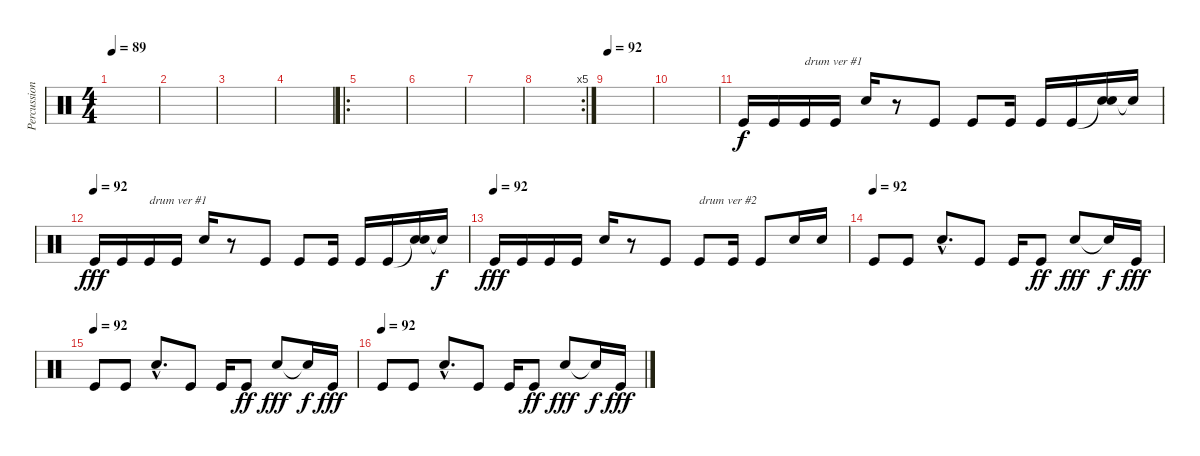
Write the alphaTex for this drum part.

\track ("Percussion" "Percussion") {instrument percussion}
\staff {score}
\articulation defaults
\ts (4 4)
\tempo 89
\clef neutral
\ks c
|
|
|
|
\ro
|
|
|
\rc 5
|
\tempo 92
|
|
"Kick (hit)".16 "Kick (hit)".16 "Kick (hit)".16{txt "drum ver #1"} "Kick (hit)".16 "Electric Snare (hit)".16 r.8 "Kick (hit)".8 "Kick (hit)".8 "Kick (hit)".16 "Kick (hit)".16 "Kick (hit)".16 ("Snare (hit)"{t} "Electric Snare (hit)").16 "Snare (hit)"{t}.16{dy f} |
\tempo (92)
"Kick (hit)".16{dy fff} "Kick (hit)".16 "Kick (hit)".16{txt "drum ver #1"} "Kick (hit)".16 "Electric Snare (hit)".16 r.8 "Kick (hit)".8 "Kick (hit)".8 "Kick (hit)".16 "Kick (hit)".16 "Kick (hit)".16 ("Snare (hit)"{t} "Electric Snare (hit)").16 "Snare (hit)"{t}.16{dy f} |
\tempo (92)
"Kick (hit)".16{dy fff} "Kick (hit)".16 "Kick (hit)".16 "Kick (hit)".16 "Electric Snare (hit)".16 r.8 "Kick (hit)".8 "Kick (hit)".8{txt "drum ver #2"} "Kick (hit)".16 "Kick (hit)".8 "Electric Snare (hit)".16 "Electric Snare (hit)".16 |
\tempo (92)
"Kick (hit)".8 "Kick (hit)".8 "Electric Snare (hit)"{hac}.8{d} "Kick (hit)".8 "Kick (hit)".16 "Kick (hit)".8{dy ff} "Electric Snare (hit)".8{dy fff} "Snare (hit)"{t}.16{dy f} "Kick (hit)".16{dy fff} |
\tempo (92)
"Kick (hit)".8 "Kick (hit)".8 "Electric Snare (hit)"{hac}.8{d} "Kick (hit)".8 "Kick (hit)".16 "Kick (hit)".8{dy ff} "Electric Snare (hit)".8{dy fff} "Snare (hit)"{t}.16{dy f} "Kick (hit)".16{dy fff} |
\tempo (92)
"Kick (hit)".8 "Kick (hit)".8 "Electric Snare (hit)"{hac}.8{d} "Kick (hit)".8 "Kick (hit)".16 "Kick (hit)".8{dy ff} "Electric Snare (hit)".8{dy fff} "Snare (hit)"{t}.16{dy f} "Kick (hit)".16{dy fff}
